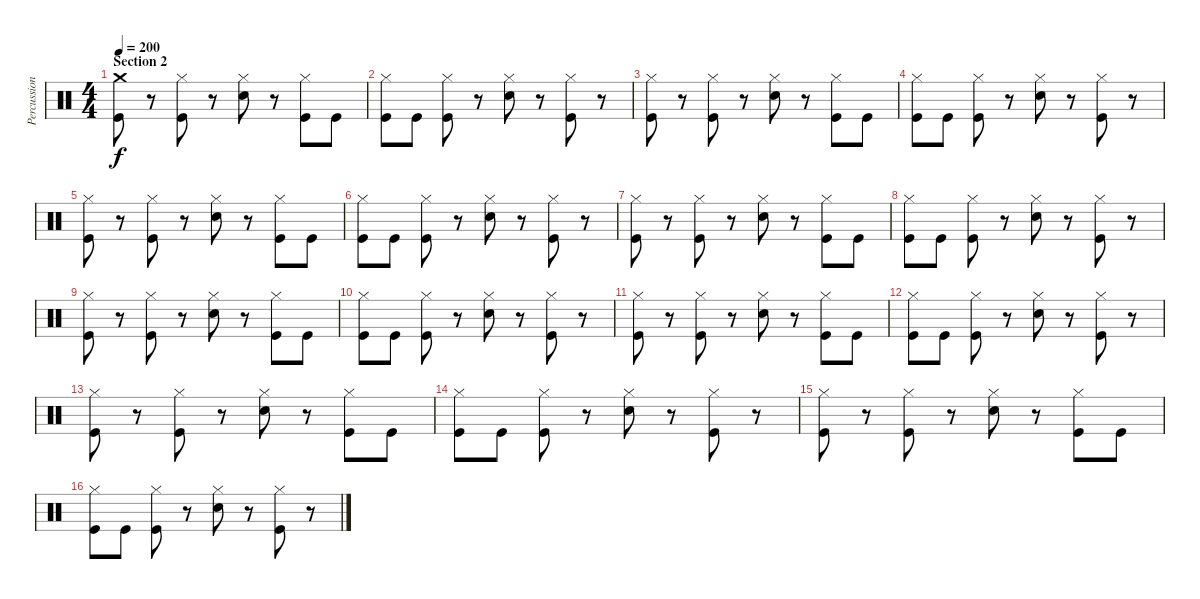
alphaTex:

\track ("Percussion" "Percussion") {instrument percussion}
\staff {score}
\articulation defaults
\ts (4 4)
\section ("" "Section 2")
\tempo 200
\clef neutral
\ks c
("Crash medium (hit)" "Kick (hit)").8{dy f} r.8 ("Hi-Hat (closed)" "Kick (hit)").8 r.8 ("Hi-Hat (closed)" "Snare (hit) 2").8 r.8 ("Hi-Hat (closed)" "Kick (hit)").8 "Kick (hit)".8 |
("Hi-Hat (closed)" "Kick (hit)").8 "Kick (hit)".8 ("Hi-Hat (closed)" "Kick (hit)").8 r.8 ("Hi-Hat (closed)" "Snare (hit) 2").8 r.8 ("Hi-Hat (closed)" "Kick (hit)").8 r.8 |
("Hi-Hat (closed)" "Kick (hit)").8 r.8 ("Hi-Hat (closed)" "Kick (hit)").8 r.8 ("Hi-Hat (closed)" "Snare (hit) 2").8 r.8 ("Hi-Hat (closed)" "Kick (hit)").8 "Kick (hit)".8 |
("Hi-Hat (closed)" "Kick (hit)").8 "Kick (hit)".8 ("Hi-Hat (closed)" "Kick (hit)").8 r.8 ("Hi-Hat (closed)" "Snare (hit) 2").8 r.8 ("Hi-Hat (closed)" "Kick (hit)").8 r.8 |
("Hi-Hat (closed)" "Kick (hit)").8 r.8 ("Hi-Hat (closed)" "Kick (hit)").8 r.8 ("Hi-Hat (closed)" "Snare (hit) 2").8 r.8 ("Hi-Hat (closed)" "Kick (hit)").8 "Kick (hit)".8 |
("Hi-Hat (closed)" "Kick (hit)").8 "Kick (hit)".8 ("Hi-Hat (closed)" "Kick (hit)").8 r.8 ("Hi-Hat (closed)" "Snare (hit) 2").8 r.8 ("Hi-Hat (closed)" "Kick (hit)").8 r.8 |
("Hi-Hat (closed)" "Kick (hit)").8 r.8 ("Hi-Hat (closed)" "Kick (hit)").8 r.8 ("Hi-Hat (closed)" "Snare (hit) 2").8 r.8 ("Hi-Hat (closed)" "Kick (hit)").8 "Kick (hit)".8 |
("Hi-Hat (closed)" "Kick (hit)").8 "Kick (hit)".8 ("Hi-Hat (closed)" "Kick (hit)").8 r.8 ("Hi-Hat (closed)" "Snare (hit) 2").8 r.8 ("Hi-Hat (closed)" "Kick (hit)").8 r.8 |
("Hi-Hat (closed)" "Kick (hit)").8 r.8 ("Hi-Hat (closed)" "Kick (hit)").8 r.8 ("Hi-Hat (closed)" "Snare (hit) 2").8 r.8 ("Hi-Hat (closed)" "Kick (hit)").8 "Kick (hit)".8 |
("Hi-Hat (closed)" "Kick (hit)").8 "Kick (hit)".8 ("Hi-Hat (closed)" "Kick (hit)").8 r.8 ("Hi-Hat (closed)" "Snare (hit) 2").8 r.8 ("Hi-Hat (closed)" "Kick (hit)").8 r.8 |
("Hi-Hat (closed)" "Kick (hit)").8 r.8 ("Hi-Hat (closed)" "Kick (hit)").8 r.8 ("Hi-Hat (closed)" "Snare (hit) 2").8 r.8 ("Hi-Hat (closed)" "Kick (hit)").8 "Kick (hit)".8 |
("Hi-Hat (closed)" "Kick (hit)").8 "Kick (hit)".8 ("Hi-Hat (closed)" "Kick (hit)").8 r.8 ("Hi-Hat (closed)" "Snare (hit) 2").8 r.8 ("Hi-Hat (closed)" "Kick (hit)").8 r.8 |
("Hi-Hat (closed)" "Kick (hit)").8 r.8 ("Hi-Hat (closed)" "Kick (hit)").8 r.8 ("Hi-Hat (closed)" "Snare (hit) 2").8 r.8 ("Hi-Hat (closed)" "Kick (hit)").8 "Kick (hit)".8 |
("Hi-Hat (closed)" "Kick (hit)").8 "Kick (hit)".8 ("Hi-Hat (closed)" "Kick (hit)").8 r.8 ("Hi-Hat (closed)" "Snare (hit) 2").8 r.8 ("Hi-Hat (closed)" "Kick (hit)").8 r.8 |
("Hi-Hat (closed)" "Kick (hit)").8 r.8 ("Hi-Hat (closed)" "Kick (hit)").8 r.8 ("Hi-Hat (closed)" "Snare (hit) 2").8 r.8 ("Hi-Hat (closed)" "Kick (hit)").8 "Kick (hit)".8 |
("Hi-Hat (closed)" "Kick (hit)").8 "Kick (hit)".8 ("Hi-Hat (closed)" "Kick (hit)").8 r.8 ("Hi-Hat (closed)" "Snare (hit) 2").8 r.8 ("Hi-Hat (closed)" "Kick (hit)").8 r.8
